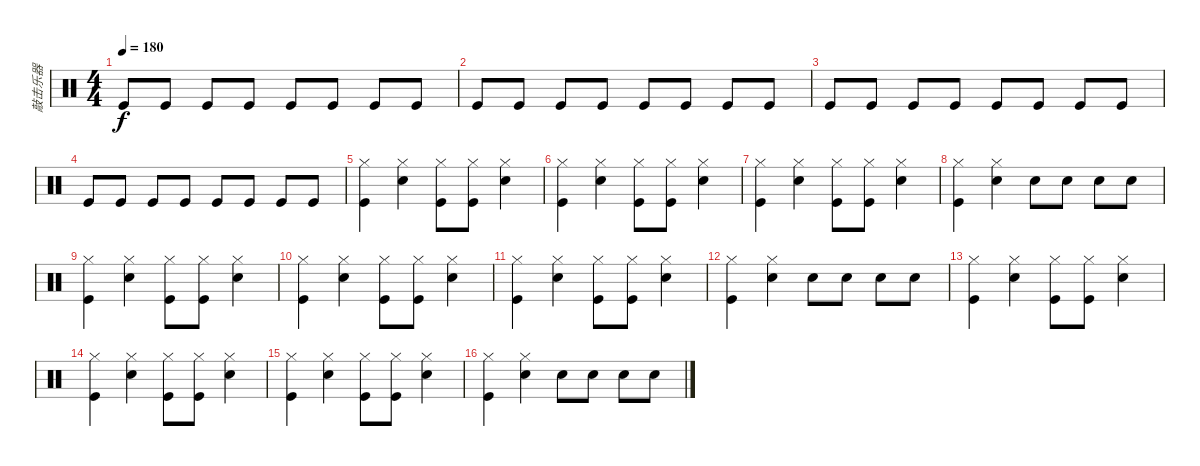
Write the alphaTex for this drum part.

\track ("敲击乐器" "敲击乐器") {instrument percussion}
\staff {score}
\articulation defaults
\ts (4 4)
\tempo 180
\clef neutral
\ks c "Kick (hit)".8{dy f} "Kick (hit)".8 "Kick (hit)".8 "Kick (hit)".8 "Kick (hit)".8 "Kick (hit)".8 "Kick (hit)".8 "Kick (hit)".8
|
"Kick (hit)".8 "Kick (hit)".8 "Kick (hit)".8 "Kick (hit)".8 "Kick (hit)".8 "Kick (hit)".8 "Kick (hit)".8 "Kick (hit)".8 |
"Kick (hit)".8 "Kick (hit)".8 "Kick (hit)".8 "Kick (hit)".8 "Kick (hit)".8 "Kick (hit)".8 "Kick (hit)".8 "Kick (hit)".8 |
"Kick (hit)".8 "Kick (hit)".8 "Kick (hit)".8 "Kick (hit)".8 "Kick (hit)".8 "Kick (hit)".8 "Kick (hit)".8 "Kick (hit)".8 |
("Hi-Hat (closed)" "Kick (hit)").4 ("Hi-Hat (closed)" "Electric Snare (hit)").4 ("Hi-Hat (closed)" "Kick (hit)").8 ("Hi-Hat (closed)" "Kick (hit)").8 ("Hi-Hat (closed)" "Electric Snare (hit)").4 |
("Hi-Hat (closed)" "Kick (hit)").4 ("Hi-Hat (closed)" "Electric Snare (hit)").4 ("Hi-Hat (closed)" "Kick (hit)").8 ("Hi-Hat (closed)" "Kick (hit)").8 ("Hi-Hat (closed)" "Electric Snare (hit)").4 |
("Hi-Hat (closed)" "Kick (hit)").4 ("Hi-Hat (closed)" "Electric Snare (hit)").4 ("Hi-Hat (closed)" "Kick (hit)").8 ("Hi-Hat (closed)" "Kick (hit)").8 ("Hi-Hat (closed)" "Electric Snare (hit)").4 |
("Hi-Hat (closed)" "Kick (hit)").4 ("Hi-Hat (closed)" "Electric Snare (hit)").4 "Electric Snare (hit)".8 "Electric Snare (hit)".8 "Electric Snare (hit)".8 "Electric Snare (hit)".8 |
("Hi-Hat (closed)" "Kick (hit)").4 ("Hi-Hat (closed)" "Electric Snare (hit)").4 ("Hi-Hat (closed)" "Kick (hit)").8 ("Hi-Hat (closed)" "Kick (hit)").8 ("Hi-Hat (closed)" "Electric Snare (hit)").4 |
("Hi-Hat (closed)" "Kick (hit)").4 ("Hi-Hat (closed)" "Electric Snare (hit)").4 ("Hi-Hat (closed)" "Kick (hit)").8 ("Hi-Hat (closed)" "Kick (hit)").8 ("Hi-Hat (closed)" "Electric Snare (hit)").4 |
("Hi-Hat (closed)" "Kick (hit)").4 ("Hi-Hat (closed)" "Electric Snare (hit)").4 ("Hi-Hat (closed)" "Kick (hit)").8 ("Hi-Hat (closed)" "Kick (hit)").8 ("Hi-Hat (closed)" "Electric Snare (hit)").4 |
("Hi-Hat (closed)" "Kick (hit)").4 ("Hi-Hat (closed)" "Electric Snare (hit)").4 "Electric Snare (hit)".8 "Electric Snare (hit)".8 "Electric Snare (hit)".8 "Electric Snare (hit)".8 |
("Hi-Hat (closed)" "Kick (hit)").4 ("Hi-Hat (closed)" "Electric Snare (hit)").4 ("Hi-Hat (closed)" "Kick (hit)").8 ("Hi-Hat (closed)" "Kick (hit)").8 ("Hi-Hat (closed)" "Electric Snare (hit)").4 |
("Hi-Hat (closed)" "Kick (hit)").4 ("Hi-Hat (closed)" "Electric Snare (hit)").4 ("Hi-Hat (closed)" "Kick (hit)").8 ("Hi-Hat (closed)" "Kick (hit)").8 ("Hi-Hat (closed)" "Electric Snare (hit)").4 |
("Hi-Hat (closed)" "Kick (hit)").4 ("Hi-Hat (closed)" "Electric Snare (hit)").4 ("Hi-Hat (closed)" "Kick (hit)").8 ("Hi-Hat (closed)" "Kick (hit)").8 ("Hi-Hat (closed)" "Electric Snare (hit)").4 |
("Hi-Hat (closed)" "Kick (hit)").4 ("Hi-Hat (closed)" "Electric Snare (hit)").4 "Electric Snare (hit)".8 "Electric Snare (hit)".8 "Electric Snare (hit)".8 "Electric Snare (hit)".8
